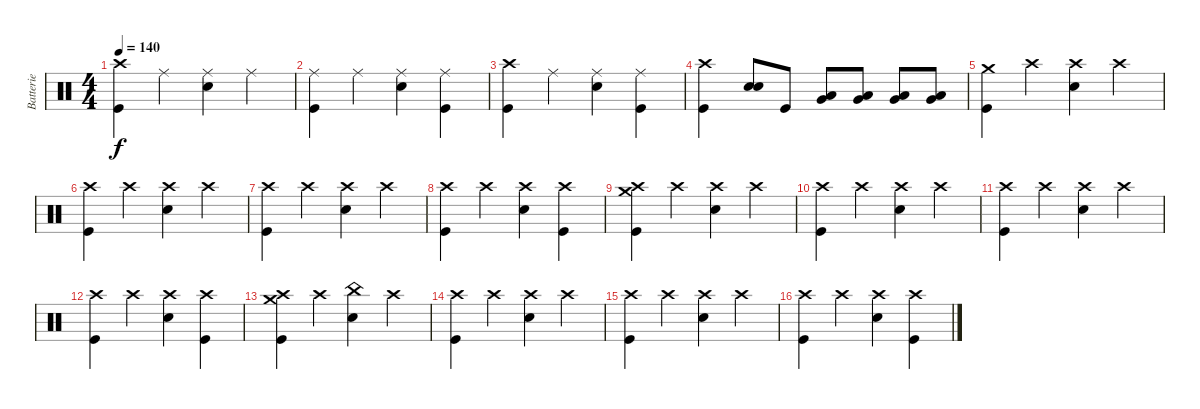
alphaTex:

\track ("Batterie" "Batterie") {instrument percussion}
\staff {score}
\articulation defaults
\ts (4 4)
\tempo 140
\clef neutral
\ks c
("Crash high (hit)" "Kick (hit)").4{dy f} "Ride (middle)".4 ("Ride (middle)" "Electric Snare (hit)").4 "Ride (middle)".4 |
("Ride (middle)" "Kick (hit)").4 "Ride (middle)".4 ("Ride (middle)" "Electric Snare (hit)").4 ("Ride (middle)" "Kick (hit)").4 |
("Crash high (hit)" "Kick (hit)").4 "Ride (middle)".4 ("Ride (middle)" "Electric Snare (hit)").4 ("Ride (middle)" "Kick (hit)").4 |
("Crash high (hit)" "Kick (hit)").4 ("Electric Snare (hit)" "Electric Snare (hit)").8{bd 120} "Kick (hit)".8 ("Low Tom (hit)" "Very Low Tom (hit)").8 ("Low Tom (hit)" "Very Low Tom (hit)").8 ("Very Low Tom (hit)" "Low Floor Tom (hit)").8 ("Very Low Tom (hit)" "Low Floor Tom (hit)").8 |
("Crash medium (hit)" "Kick (hit)").4 "Crash high (hit)".4 ("Crash high (hit)" "Electric Snare (hit)").4 "Crash high (hit)".4 |
("Crash high (hit)" "Kick (hit)").4 "Crash high (hit)".4 ("Crash high (hit)" "Electric Snare (hit)").4 "Crash high (hit)".4 |
("Crash high (hit)" "Kick (hit)").4 "Crash high (hit)".4 ("Crash high (hit)" "Electric Snare (hit)").4 "Crash high (hit)".4 |
("Crash high (hit)" "Kick (hit)").4 "Crash high (hit)".4 ("Crash high (hit)" "Electric Snare (hit)").4 ("Crash high (hit)" "Kick (hit)").4 |
("Crash medium (hit)" "Crash high (hit)" "Kick (hit)").4 "Crash high (hit)".4 ("Crash high (hit)" "Electric Snare (hit)").4 "Crash high (hit)".4 |
("Crash high (hit)" "Kick (hit)").4 "Crash high (hit)".4 ("Crash high (hit)" "Electric Snare (hit)").4 "Crash high (hit)".4 |
("Crash high (hit)" "Kick (hit)").4 "Crash high (hit)".4 ("Crash high (hit)" "Electric Snare (hit)").4 "Crash high (hit)".4 |
("Crash high (hit)" "Kick (hit)").4 "Crash high (hit)".4 ("Crash high (hit)" "Electric Snare (hit)").4 ("Crash high (hit)" "Kick (hit)").4 |
("Crash medium (hit)" "Crash high (hit)" "Kick (hit)").4 "Crash high (hit)".4 ("China (hit)" "Electric Snare (hit)").4 "Crash high (hit)".4 |
("Crash high (hit)" "Kick (hit)").4 "Crash high (hit)".4 ("Crash high (hit)" "Electric Snare (hit)").4 "Crash high (hit)".4 |
("Crash high (hit)" "Kick (hit)").4 "Crash high (hit)".4 ("Crash high (hit)" "Electric Snare (hit)").4 "Crash high (hit)".4 |
("Crash high (hit)" "Kick (hit)").4 "Crash high (hit)".4 ("Crash high (hit)" "Electric Snare (hit)").4 ("Crash high (hit)" "Kick (hit)").4
